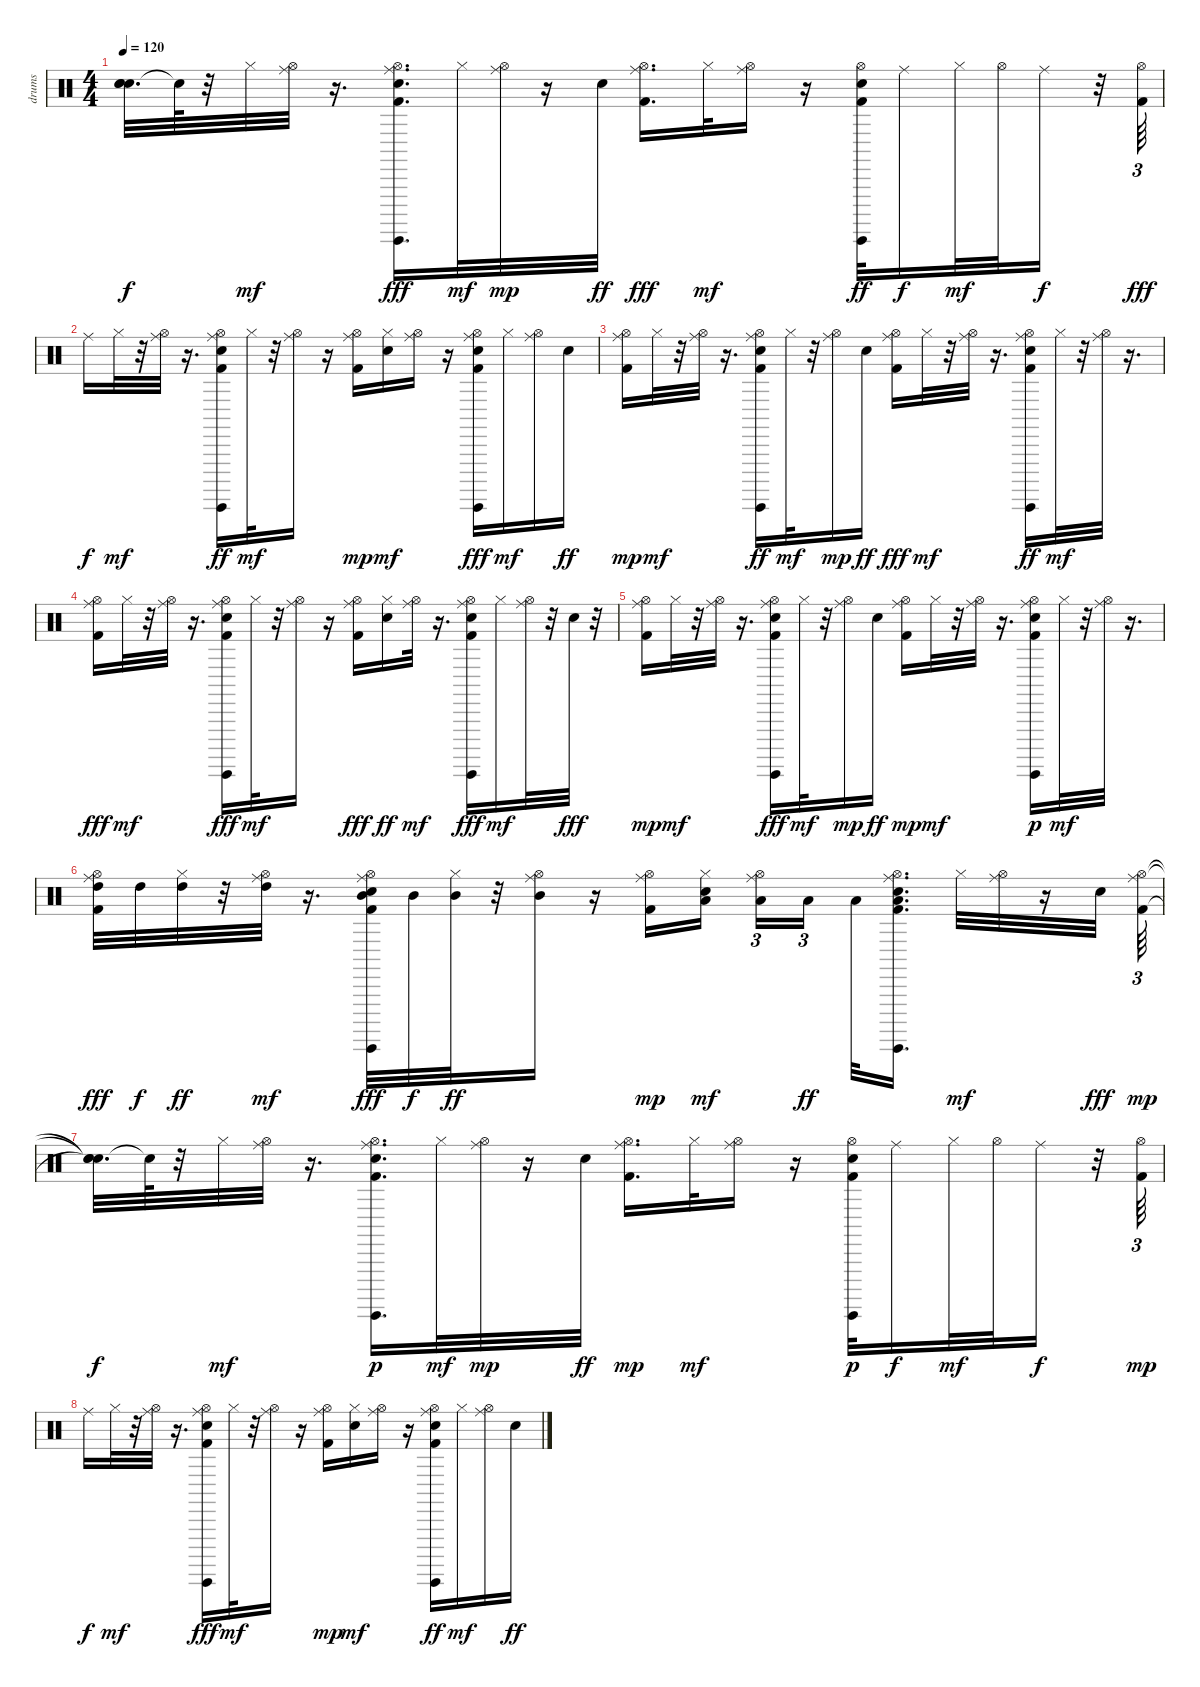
\track ("drums                               " "drums     ") {instrument percussion}
\staff {score}
\articulation defaults
\ts (4 4)
\tempo 120
\clef neutral
\ks c
("Snare (hit)"{t} "Snare (hit)"{t} "Snare (hit)"{t}).32{d dy f} "Snare (hit)"{t}.64 r.32 "Hi-Hat (closed)".32{dy mf} ("Ride (middle)" "Hi-Hat (open)").32 r.16{d} ("Electric Snare (hit)" "Guiro (hit)" "Hi-Hat (open)" "Kick (hit) 2" "Ride (middle)").16{d dy fff} "Hi-Hat (closed)".32{dy mf} ("Hi-Hat (open)" "Ride (middle)").32{dy mp} r.16 "Electric Snare (hit)".32{dy ff} ("Hi-Hat (open)" "Kick (hit) 2" "Ride (middle)").16{d dy fff} "Hi-Hat (closed)".32{dy mf} ("Ride (middle)" "Hi-Hat (open)").16 r.16 ("Hi-Hat (open)" "Kick (hit) 2" "Guiro (hit)" "Electric Snare (hit)").32{dy ff} "Ride (middle)".16{dy f} "Hi-Hat (closed)".32{dy mf} "Hi-Hat (open)".32 "Ride (middle)".16{dy f} r.32 ("Hi-Hat (open)" "Kick (hit) 2").64{tu (3 2) dy fff} |
"Ride (middle)".16{dy f} "Hi-Hat (closed)".32{dy mf} r.32 ("Hi-Hat (open)" "Ride (middle)").32 r.16{d} ("Hi-Hat (open)" "Kick (hit) 2" "Electric Snare (hit)" "Guiro (hit)" "Ride (middle)").16{dy ff} "Hi-Hat (closed)".32{dy mf} r.32 ("Hi-Hat (open)" "Ride (middle)").16 r.16 ("Ride (middle)" "Kick (hit) 2" "Hi-Hat (open)").16{dy mp} ("Electric Snare (hit)" "Hi-Hat (closed)").16{dy mf} ("Hi-Hat (open)" "Ride (middle)").16 r.16 ("Electric Snare (hit)" "Guiro (hit)" "Hi-Hat (open)" "Kick (hit) 2" "Ride (middle)").16{dy fff} "Hi-Hat (closed)".16{dy mf} ("Hi-Hat (open)" "Ride (middle)").16 "Electric Snare (hit)".16{dy ff} |
("Kick (hit) 2" "Hi-Hat (open)" "Ride (middle)").16{dy mp} "Hi-Hat (closed)".32{dy mf} r.32 ("Hi-Hat (open)" "Ride (middle)").32 r.16{d} ("Kick (hit) 2" "Guiro (hit)" "Hi-Hat (open)" "Electric Snare (hit)" "Ride (middle)").16{dy ff} "Hi-Hat (closed)".32{dy mf} r.32 ("Hi-Hat (open)" "Ride (middle)").16{dy mp} "Electric Snare (hit)".16{dy ff} ("Ride (middle)" "Hi-Hat (open)" "Kick (hit) 2").16{dy fff} "Hi-Hat (closed)".32{dy mf} r.32 ("Hi-Hat (open)" "Ride (middle)").32 r.16{d} ("Hi-Hat (open)" "Guiro (hit)" "Kick (hit) 2" "Electric Snare (hit)" "Ride (middle)").16{dy ff} "Hi-Hat (closed)".32{dy mf} r.32 ("Hi-Hat (open)" "Ride (middle)").32 r.16{d} |
("Hi-Hat (open)" "Kick (hit) 2" "Ride (middle)").16{dy fff} "Hi-Hat (closed)".32{dy mf} r.32 ("Ride (middle)" "Hi-Hat (open)").32 r.16{d} ("Hi-Hat (open)" "Guiro (hit)" "Kick (hit) 2" "Electric Snare (hit)" "Ride (middle)").16{dy fff} "Hi-Hat (closed)".32{dy mf} r.32 ("Ride (middle)" "Hi-Hat (open)").16 r.16 ("Ride (middle)" "Hi-Hat (open)" "Kick (hit) 2").16{dy fff} ("Hi-Hat (closed)" "Electric Snare (hit)").16{dy ff} ("Ride (middle)" "Hi-Hat (open)").32{dy mf} r.16{d} ("Ride (middle)" "Hi-Hat (open)" "Electric Snare (hit)" "Guiro (hit)" "Kick (hit) 2").16{dy fff} "Hi-Hat (closed)".16{dy mf} ("Ride (middle)" "Hi-Hat (open)").32 r.32 "Electric Snare (hit)".32{dy fff} r.32 |
("Kick (hit) 2" "Hi-Hat (open)" "Ride (middle)").16{dy mp} "Hi-Hat (closed)".32{dy mf} r.32 ("Hi-Hat (open)" "Ride (middle)").32 r.16{d} ("Guiro (hit)" "Electric Snare (hit)" "Hi-Hat (open)" "Kick (hit) 2" "Ride (middle)").16{dy fff} "Hi-Hat (closed)".32{dy mf} r.32 ("Hi-Hat (open)" "Ride (middle)").16{dy mp} "Electric Snare (hit)".16{dy ff} ("Ride (middle)" "Kick (hit) 2" "Hi-Hat (open)").16{dy mp} "Hi-Hat (closed)".32{dy mf} r.32 ("Hi-Hat (open)" "Ride (middle)").32 r.16{d} ("Kick (hit) 2" "Electric Snare (hit)" "Hi-Hat (open)" "Guiro (hit)" "Ride (middle)").16{dy p} "Hi-Hat (closed)".32{dy mf} r.32 ("Hi-Hat (open)" "Ride (middle)").32 r.16{d} |
("Hi-Hat (open)" "High Tom (hit)" "Kick (hit) 2" "Ride (middle)").32{dy fff} "High Tom (hit)".32{dy f} ("Hi-Hat (closed)" "High Tom (hit)").32{dy ff} r.32 ("Ride (middle)" "High Tom (hit)" "Hi-Hat (open)").32{dy mf} r.16{d} ("Guiro (hit)" "Hi-Hat (open)" "Mid Tom (hit)" "Electric Snare (hit)" "Kick (hit) 2" "Ride (middle)").32{dy fff} "Mid Tom (hit)".32{dy f} ("Hi-Hat (closed)" "Mid Tom (hit)").32{dy ff} r.32 ("Ride (middle)" "Hi-Hat (open)" "Mid Tom (hit)").16 r.16 ("Ride (middle)" "Kick (hit) 2" "Hi-Hat (open)").16{dy mp} ("Low Tom (hit)" "Electric Snare (hit)" "Hi-Hat (closed)").16{dy mf beam splitsecondary} ("Ride (middle)" "Low Tom (hit)" "Hi-Hat (open)").16{tu (3 2)} "Low Tom (hit)".16{tu (3 2) dy ff beam splitsecondary} "Low Tom (hit)".32 ("Ride (middle)" "Kick (hit) 2" "Hi-Hat (open)" "Electric Snare (hit)" "Guiro (hit)" "Low Floor Tom (hit)").16{d} "Hi-Hat (closed)".32{dy mf} ("Ride (middle)" "Hi-Hat (open)").32 r.16 "Electric Snare (hit)".32{dy fff} ("Kick (hit) 2" "Ride (middle)" "Hi-Hat (open)").64{tu (3 2) dy mp} |
("Snare (hit)"{t} "Snare (hit)"{t} "Snare (hit)"{t}).32{d dy f} "Snare (hit)"{t}.64 r.32 "Hi-Hat (closed)".32{dy mf} ("Ride (middle)" "Hi-Hat (open)").32 r.16{d} ("Kick (hit) 2" "Electric Snare (hit)" "Guiro (hit)" "Hi-Hat (open)" "Ride (middle)").16{d dy p} "Hi-Hat (closed)".32{dy mf} ("Hi-Hat (open)" "Ride (middle)").32{dy mp} r.16 "Electric Snare (hit)".32{dy ff} ("Kick (hit) 2" "Hi-Hat (open)" "Ride (middle)").16{d dy mp} "Hi-Hat (closed)".32{dy mf} ("Ride (middle)" "Hi-Hat (open)").16 r.16 ("Kick (hit) 2" "Electric Snare (hit)" "Hi-Hat (open)" "Guiro (hit)").32{dy p} "Ride (middle)".16{dy f} "Hi-Hat (closed)".32{dy mf} "Hi-Hat (open)".32 "Ride (middle)".16{dy f} r.32 ("Kick (hit) 2" "Hi-Hat (open)").64{tu (3 2) dy mp} |
"Ride (middle)".16{dy f} "Hi-Hat (closed)".32{dy mf} r.32 ("Hi-Hat (open)" "Ride (middle)").32 r.16{d} ("Electric Snare (hit)" "Guiro (hit)" "Hi-Hat (open)" "Kick (hit) 2" "Ride (middle)").16{dy fff} "Hi-Hat (closed)".32{dy mf} r.32 ("Hi-Hat (open)" "Ride (middle)").16 r.16 ("Ride (middle)" "Kick (hit) 2" "Hi-Hat (open)").16{dy mp} ("Electric Snare (hit)" "Hi-Hat (closed)").16{dy mf} ("Hi-Hat (open)" "Ride (middle)").16 r.16 ("Guiro (hit)" "Hi-Hat (open)" "Kick (hit) 2" "Electric Snare (hit)" "Ride (middle)").16{dy ff} "Hi-Hat (closed)".16{dy mf} ("Hi-Hat (open)" "Ride (middle)").16 "Electric Snare (hit)".16{dy ff}
